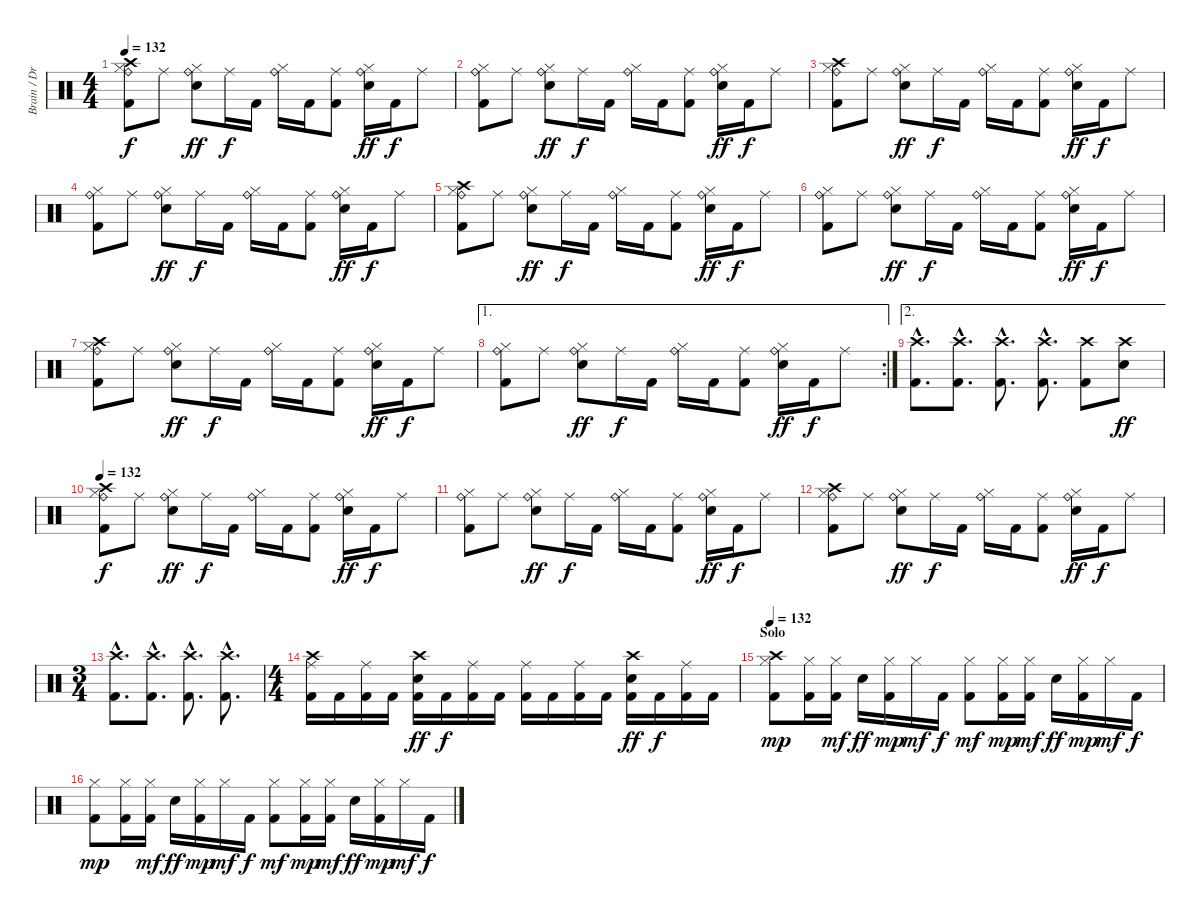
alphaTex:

\track ("Brain / Drums" "Brain / Dr") {instrument percussion}
\staff {score}
\articulation defaults
\ts (4 4)
\tempo 132
\clef neutral
\ks c
("Crash high (hit)" "Hi-Hat (closed)" "Ride (bell)" "Kick (hit) 2").8{dy f} "Ride (middle)".8 ("Hi-Hat (closed)" "Ride (bell)" "Electric Snare (hit)").8{dy ff} "Ride (middle)".16{dy f} "Kick (hit) 2".16 ("Hi-Hat (closed)" "Ride (bell)").16 "Kick (hit) 2".16 ("Ride (middle)" "Kick (hit) 2").8 ("Hi-Hat (closed)" "Ride (bell)" "Electric Snare (hit)").16{dy ff} "Kick (hit) 2".16{dy f} "Ride (middle)".8 |
("Hi-Hat (closed)" "Ride (bell)" "Kick (hit) 2").8 "Ride (middle)".8 ("Hi-Hat (closed)" "Ride (bell)" "Electric Snare (hit)").8{dy ff} "Ride (middle)".16{dy f} "Kick (hit) 2".16 ("Hi-Hat (closed)" "Ride (bell)").16 "Kick (hit) 2".16 ("Ride (middle)" "Kick (hit) 2").8 ("Hi-Hat (closed)" "Ride (bell)" "Electric Snare (hit)").16{dy ff} "Kick (hit) 2".16{dy f} "Ride (middle)".8 |
("Crash high (hit)" "Hi-Hat (closed)" "Ride (bell)" "Kick (hit) 2").8 "Ride (middle)".8 ("Hi-Hat (closed)" "Ride (bell)" "Electric Snare (hit)").8{dy ff} "Ride (middle)".16{dy f} "Kick (hit) 2".16 ("Hi-Hat (closed)" "Ride (bell)").16 "Kick (hit) 2".16 ("Ride (middle)" "Kick (hit) 2").8 ("Hi-Hat (closed)" "Ride (bell)" "Electric Snare (hit)").16{dy ff} "Kick (hit) 2".16{dy f} "Ride (middle)".8 |
("Hi-Hat (closed)" "Ride (bell)" "Kick (hit) 2").8 "Ride (middle)".8 ("Hi-Hat (closed)" "Ride (bell)" "Electric Snare (hit)").8{dy ff} "Ride (middle)".16{dy f} "Kick (hit) 2".16 ("Hi-Hat (closed)" "Ride (bell)").16 "Kick (hit) 2".16 ("Ride (middle)" "Kick (hit) 2").8 ("Hi-Hat (closed)" "Ride (bell)" "Electric Snare (hit)").16{dy ff} "Kick (hit) 2".16{dy f} "Ride (middle)".8 |
("Crash high (hit)" "Hi-Hat (closed)" "Ride (bell)" "Kick (hit) 2").8 "Ride (middle)".8 ("Hi-Hat (closed)" "Ride (bell)" "Electric Snare (hit)").8{dy ff} "Ride (middle)".16{dy f} "Kick (hit) 2".16 ("Hi-Hat (closed)" "Ride (bell)").16 "Kick (hit) 2".16 ("Ride (middle)" "Kick (hit) 2").8 ("Hi-Hat (closed)" "Ride (bell)" "Electric Snare (hit)").16{dy ff} "Kick (hit) 2".16{dy f} "Ride (middle)".8 |
("Hi-Hat (closed)" "Ride (bell)" "Kick (hit) 2").8 "Ride (middle)".8 ("Hi-Hat (closed)" "Ride (bell)" "Electric Snare (hit)").8{dy ff} "Ride (middle)".16{dy f} "Kick (hit) 2".16 ("Hi-Hat (closed)" "Ride (bell)").16 "Kick (hit) 2".16 ("Ride (middle)" "Kick (hit) 2").8 ("Hi-Hat (closed)" "Ride (bell)" "Electric Snare (hit)").16{dy ff} "Kick (hit) 2".16{dy f} "Ride (middle)".8 |
("Crash high (hit)" "Hi-Hat (closed)" "Ride (bell)" "Kick (hit) 2").8 "Ride (middle)".8 ("Hi-Hat (closed)" "Ride (bell)" "Electric Snare (hit)").8{dy ff} "Ride (middle)".16{dy f} "Kick (hit) 2".16 ("Hi-Hat (closed)" "Ride (bell)").16 "Kick (hit) 2".16 ("Ride (middle)" "Kick (hit) 2").8 ("Hi-Hat (closed)" "Ride (bell)" "Electric Snare (hit)").16{dy ff} "Kick (hit) 2".16{dy f} "Ride (middle)".8 |
\ae 1
\rc 2
("Hi-Hat (closed)" "Ride (bell)" "Kick (hit) 2").8 "Ride (middle)".8 ("Hi-Hat (closed)" "Ride (bell)" "Electric Snare (hit)").8{dy ff} "Ride (middle)".16{dy f} "Kick (hit) 2".16 ("Hi-Hat (closed)" "Ride (bell)").16 "Kick (hit) 2".16 ("Ride (middle)" "Kick (hit) 2").8 ("Hi-Hat (closed)" "Ride (bell)" "Electric Snare (hit)").16{dy ff} "Kick (hit) 2".16{dy f} "Ride (middle)".8 |
\ae 2
("Crash high (hit)"{hac} "Kick (hit) 2"{hac}).8{d} ("Crash high (hit)"{hac} "Kick (hit) 2"{hac}).8{d} ("Crash high (hit)"{hac} "Kick (hit) 2"{hac}).8{d} ("Crash high (hit)"{hac} "Kick (hit) 2"{hac}).8{d} ("Crash high (hit)" "Kick (hit) 2").8 ("Crash high (hit)" "Electric Snare (hit)").8{dy ff} |
\tempo 132
("Crash high (hit)" "Hi-Hat (closed)" "Ride (bell)" "Kick (hit) 2").8{dy f} "Ride (middle)".8 ("Hi-Hat (closed)" "Ride (bell)" "Electric Snare (hit)").8{dy ff} "Ride (middle)".16{dy f} "Kick (hit) 2".16 ("Hi-Hat (closed)" "Ride (bell)").16 "Kick (hit) 2".16 ("Ride (middle)" "Kick (hit) 2").8 ("Hi-Hat (closed)" "Ride (bell)" "Electric Snare (hit)").16{dy ff} "Kick (hit) 2".16{dy f} "Ride (middle)".8 |
("Hi-Hat (closed)" "Ride (bell)" "Kick (hit) 2").8 "Ride (middle)".8 ("Hi-Hat (closed)" "Ride (bell)" "Electric Snare (hit)").8{dy ff} "Ride (middle)".16{dy f} "Kick (hit) 2".16 ("Hi-Hat (closed)" "Ride (bell)").16 "Kick (hit) 2".16 ("Ride (middle)" "Kick (hit) 2").8 ("Hi-Hat (closed)" "Ride (bell)" "Electric Snare (hit)").16{dy ff} "Kick (hit) 2".16{dy f} "Ride (middle)".8 |
("Crash high (hit)" "Hi-Hat (closed)" "Ride (bell)" "Kick (hit) 2").8 "Ride (middle)".8 ("Hi-Hat (closed)" "Ride (bell)" "Electric Snare (hit)").8{dy ff} "Ride (middle)".16{dy f} "Kick (hit) 2".16 ("Hi-Hat (closed)" "Ride (bell)").16 "Kick (hit) 2".16 ("Ride (middle)" "Kick (hit) 2").8 ("Hi-Hat (closed)" "Ride (bell)" "Electric Snare (hit)").16{dy ff} "Kick (hit) 2".16{dy f} "Ride (middle)".8 |
\ts (3 4)
("Crash high (hit)"{hac} "Kick (hit) 2"{hac}).8{d} ("Crash high (hit)"{hac} "Kick (hit) 2"{hac}).8{d} ("Crash high (hit)"{hac} "Kick (hit) 2"{hac}).8{d} ("Crash high (hit)"{hac} "Kick (hit) 2"{hac}).8{d} |
\ts (4 4)
("Crash high (hit)" "Ride (middle)" "Kick (hit) 2").16 "Kick (hit) 2".16 ("Ride (middle)" "Kick (hit) 2").16 "Kick (hit) 2".16 ("Crash high (hit)" "Electric Snare (hit)" "Kick (hit) 2").16{dy ff} "Kick (hit) 2".16{dy f} ("Ride (middle)" "Kick (hit) 2").16 "Kick (hit) 2".16 ("Ride (middle)" "Kick (hit) 2").16 "Kick (hit) 2".16 ("Ride (middle)" "Kick (hit) 2").16 "Kick (hit) 2".16 ("Crash high (hit)" "Electric Snare (hit)" "Kick (hit) 2").16{dy ff} "Kick (hit) 2".16{dy f} ("Ride (middle)" "Kick (hit) 2").16 "Kick (hit) 2".16 |
\section ("" "Solo")
\tempo 132
("Crash high (hit)" "Hi-Hat (closed)" "Kick (hit) 2").8{dy mp} ("Hi-Hat (closed)" "Kick (hit) 2").16 ("Hi-Hat (closed)" "Kick (hit) 2").16{dy mf} "Electric Snare (hit)".16{dy ff} ("Hi-Hat (closed)" "Kick (hit) 2").16{dy mp} "Hi-Hat (closed)".16{dy mf} "Kick (hit) 2".16{dy f} ("Hi-Hat (closed)" "Kick (hit) 2").8{dy mf} ("Hi-Hat (closed)" "Kick (hit) 2").16{dy mp} ("Hi-Hat (closed)" "Kick (hit) 2").16{dy mf} "Electric Snare (hit)".16{dy ff} ("Hi-Hat (closed)" "Kick (hit) 2").16{dy mp} "Hi-Hat (closed)".16{dy mf} "Kick (hit) 2".16{dy f} |
("Hi-Hat (closed)" "Kick (hit) 2").8{dy mp} ("Hi-Hat (closed)" "Kick (hit) 2").16 ("Hi-Hat (closed)" "Kick (hit) 2").16{dy mf} "Electric Snare (hit)".16{dy ff} ("Hi-Hat (closed)" "Kick (hit) 2").16{dy mp} "Hi-Hat (closed)".16{dy mf} "Kick (hit) 2".16{dy f} ("Hi-Hat (closed)" "Kick (hit) 2").8{dy mf} ("Hi-Hat (closed)" "Kick (hit) 2").16{dy mp} ("Hi-Hat (closed)" "Kick (hit) 2").16{dy mf} "Electric Snare (hit)".16{dy ff} ("Hi-Hat (closed)" "Kick (hit) 2").16{dy mp} "Hi-Hat (closed)".16{dy mf} "Kick (hit) 2".16{dy f}
